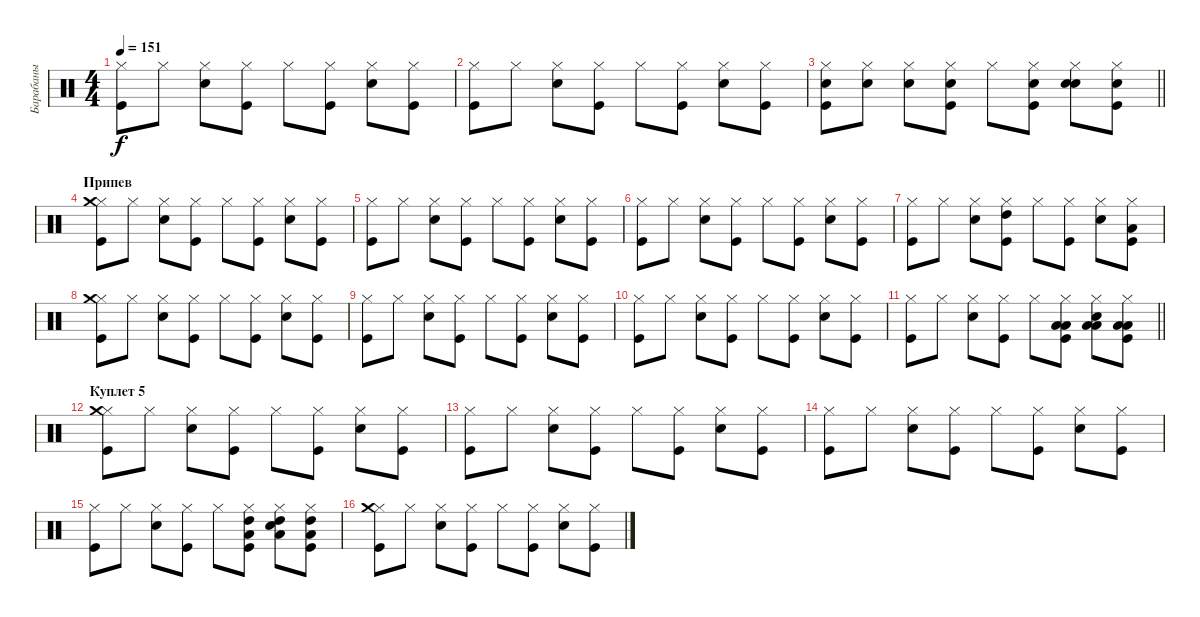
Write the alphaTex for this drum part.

\track ("Барабаны" "Барабаны") {instrument percussion}
\staff {score}
\articulation defaults
\ts (4 4)
\tempo 151
\clef neutral
\ks c
("Kick (hit)" "Hi-Hat (closed)").8{dy f} "Hi-Hat (closed)".8 ("Snare (hit) 2" "Hi-Hat (closed)").8 ("Kick (hit)" "Hi-Hat (closed)").8 "Hi-Hat (closed)".8 ("Kick (hit)" "Hi-Hat (closed)").8 ("Snare (hit) 2" "Hi-Hat (closed)").8 ("Kick (hit)" "Hi-Hat (closed)").8 |
("Kick (hit)" "Hi-Hat (closed)").8 "Hi-Hat (closed)".8 ("Snare (hit) 2" "Hi-Hat (closed)").8 ("Kick (hit)" "Hi-Hat (closed)").8 "Hi-Hat (closed)".8 ("Kick (hit)" "Hi-Hat (closed)").8 ("Snare (hit) 2" "Hi-Hat (closed)").8 ("Kick (hit)" "Hi-Hat (closed)").8 |
\barLineRight lightlight
("Kick (hit)" "Hi-Hat (closed)" "Hand Clap (hit)").8 ("Hi-Hat (closed)" "Hand Clap (hit)").8 ("Snare (hit) 2" "Hi-Hat (closed)").8 ("Kick (hit)" "Hi-Hat (closed)" "Hand Clap (hit)").8 "Hi-Hat (closed)".8 ("Kick (hit)" "Hi-Hat (closed)" "Hand Clap (hit)").8 ("Snare (hit) 2" "Hi-Hat (closed)" "Hand Clap (hit)").8 ("Kick (hit)" "Hi-Hat (closed)" "Hand Clap (hit)").8 |
\section ("" "Припев")
("Kick (hit)" "Hi-Hat (closed)" "Crash medium (hit)").8 "Hi-Hat (closed)".8 ("Snare (hit) 2" "Hi-Hat (closed)").8 ("Kick (hit)" "Hi-Hat (closed)").8 "Hi-Hat (closed)".8 ("Kick (hit)" "Hi-Hat (closed)").8 ("Snare (hit) 2" "Hi-Hat (closed)").8 ("Kick (hit)" "Hi-Hat (closed)").8 |
("Kick (hit)" "Hi-Hat (closed)").8 "Hi-Hat (closed)".8 ("Snare (hit) 2" "Hi-Hat (closed)").8 ("Kick (hit)" "Hi-Hat (closed)").8 "Hi-Hat (closed)".8 ("Kick (hit)" "Hi-Hat (closed)").8 ("Snare (hit) 2" "Hi-Hat (closed)").8 ("Kick (hit)" "Hi-Hat (closed)").8 |
("Kick (hit)" "Hi-Hat (closed)").8 "Hi-Hat (closed)".8 ("Snare (hit) 2" "Hi-Hat (closed)").8 ("Kick (hit)" "Hi-Hat (closed)").8 "Hi-Hat (closed)".8 ("Kick (hit)" "Hi-Hat (closed)").8 ("Snare (hit) 2" "Hi-Hat (closed)").8 ("Kick (hit)" "Hi-Hat (closed)").8 |
("Kick (hit)" "Hi-Hat (closed)").8 "Hi-Hat (closed)".8 ("Snare (hit) 2" "Hi-Hat (closed)").8 ("Kick (hit)" "Hi-Hat (closed)" "High Tom (hit)").8 "Hi-Hat (closed)".8 ("Kick (hit)" "Hi-Hat (closed)").8 ("Snare (hit) 2" "Hi-Hat (closed)").8 ("Kick (hit)" "Hi-Hat (closed)" "Low Floor Tom (hit)").8 |
("Kick (hit)" "Hi-Hat (closed)" "Crash medium (hit)").8 "Hi-Hat (closed)".8 ("Snare (hit) 2" "Hi-Hat (closed)").8 ("Kick (hit)" "Hi-Hat (closed)").8 "Hi-Hat (closed)".8 ("Kick (hit)" "Hi-Hat (closed)").8 ("Snare (hit) 2" "Hi-Hat (closed)").8 ("Kick (hit)" "Hi-Hat (closed)").8 |
("Kick (hit)" "Hi-Hat (closed)").8 "Hi-Hat (closed)".8 ("Snare (hit) 2" "Hi-Hat (closed)").8 ("Kick (hit)" "Hi-Hat (closed)").8 "Hi-Hat (closed)".8 ("Kick (hit)" "Hi-Hat (closed)").8 ("Snare (hit) 2" "Hi-Hat (closed)").8 ("Kick (hit)" "Hi-Hat (closed)").8 |
("Kick (hit)" "Hi-Hat (closed)").8 "Hi-Hat (closed)".8 ("Snare (hit) 2" "Hi-Hat (closed)").8 ("Kick (hit)" "Hi-Hat (closed)").8 "Hi-Hat (closed)".8 ("Kick (hit)" "Hi-Hat (closed)").8 ("Snare (hit) 2" "Hi-Hat (closed)").8 ("Kick (hit)" "Hi-Hat (closed)").8 |
\barLineRight lightlight
("Kick (hit)" "Hi-Hat (closed)").8 "Hi-Hat (closed)".8 ("Snare (hit) 2" "Hi-Hat (closed)").8 ("Kick (hit)" "Hi-Hat (closed)").8 "Hi-Hat (closed)".8 ("Kick (hit)" "Hi-Hat (closed)" "Low Floor Tom (hit)" "Low Tom (hit)").8 ("Snare (hit) 2" "Hi-Hat (closed)" "Low Floor Tom (hit)" "Low Tom (hit)").8 ("Kick (hit)" "Hi-Hat (closed)" "Low Floor Tom (hit)" "Low Tom (hit)").8 |
\section ("" "Куплет 5")
("Kick (hit)" "Hi-Hat (closed)" "Crash medium (hit)").8 "Hi-Hat (closed)".8 ("Snare (hit) 2" "Hi-Hat (closed)").8 ("Kick (hit)" "Hi-Hat (closed)").8 "Hi-Hat (closed)".8 ("Kick (hit)" "Hi-Hat (closed)").8 ("Snare (hit) 2" "Hi-Hat (closed)").8 ("Kick (hit)" "Hi-Hat (closed)").8 |
("Kick (hit)" "Hi-Hat (closed)").8 "Hi-Hat (closed)".8 ("Snare (hit) 2" "Hi-Hat (closed)").8 ("Kick (hit)" "Hi-Hat (closed)").8 "Hi-Hat (closed)".8 ("Kick (hit)" "Hi-Hat (closed)").8 ("Snare (hit) 2" "Hi-Hat (closed)").8 ("Kick (hit)" "Hi-Hat (closed)").8 |
("Kick (hit)" "Hi-Hat (closed)").8 "Hi-Hat (closed)".8 ("Snare (hit) 2" "Hi-Hat (closed)").8 ("Kick (hit)" "Hi-Hat (closed)").8 "Hi-Hat (closed)".8 ("Kick (hit)" "Hi-Hat (closed)").8 ("Snare (hit) 2" "Hi-Hat (closed)").8 ("Kick (hit)" "Hi-Hat (closed)").8 |
("Kick (hit)" "Hi-Hat (closed)").8 "Hi-Hat (closed)".8 ("Snare (hit) 2" "Hi-Hat (closed)").8 ("Kick (hit)" "Hi-Hat (closed)").8 "Hi-Hat (closed)".8 ("Kick (hit)" "Hi-Hat (closed)" "Low Floor Tom (hit)" "High Tom (hit)").8 ("Snare (hit) 2" "Hi-Hat (closed)" "Low Floor Tom (hit)" "High Tom (hit)").8 ("Kick (hit)" "Hi-Hat (closed)" "Low Floor Tom (hit)" "High Tom (hit)").8 |
("Kick (hit)" "Hi-Hat (closed)" "Crash medium (hit)").8 "Hi-Hat (closed)".8 ("Snare (hit) 2" "Hi-Hat (closed)").8 ("Kick (hit)" "Hi-Hat (closed)").8 "Hi-Hat (closed)".8 ("Kick (hit)" "Hi-Hat (closed)").8 ("Snare (hit) 2" "Hi-Hat (closed)").8 ("Kick (hit)" "Hi-Hat (closed)").8
